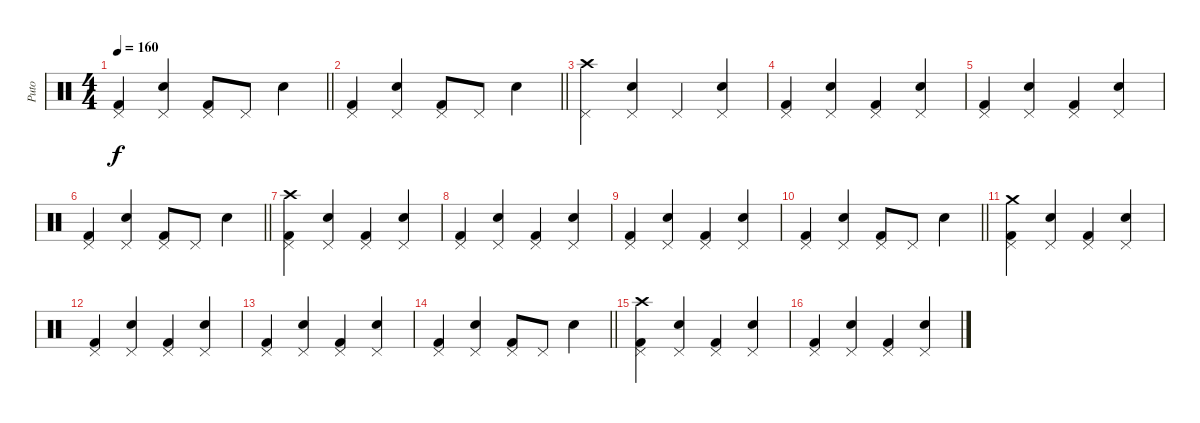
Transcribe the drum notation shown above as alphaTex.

\track ("Puto" "Puto") {instrument percussion}
\staff {score}
\articulation defaults
\ts (4 4)
\tempo 160
\clef neutral
\barLineRight lightlight
\ks c
("Kick (hit) 2" "Pedal Hi-Hat (hit)").4{dy f} ("Snare (hit) 2" "Pedal Hi-Hat (hit)").4 ("Kick (hit) 2" "Pedal Hi-Hat (hit)").8 "Pedal Hi-Hat (hit)".8 "Snare (hit) 2".4 |
\barLineRight lightlight
("Kick (hit) 2" "Pedal Hi-Hat (hit)").4 ("Snare (hit) 2" "Pedal Hi-Hat (hit)").4 ("Kick (hit) 2" "Pedal Hi-Hat (hit)").8 "Pedal Hi-Hat (hit)".8 "Snare (hit) 2".4 |
("Crash high (hit)" "Pedal Hi-Hat (hit)").4 ("Snare (hit) 2" "Pedal Hi-Hat (hit)").4 "Pedal Hi-Hat (hit)".4 ("Snare (hit) 2" "Pedal Hi-Hat (hit)").4 |
("Kick (hit) 2" "Pedal Hi-Hat (hit)").4 ("Snare (hit) 2" "Pedal Hi-Hat (hit)").4 ("Kick (hit) 2" "Pedal Hi-Hat (hit)").4 ("Snare (hit) 2" "Pedal Hi-Hat (hit)").4 |
("Kick (hit) 2" "Pedal Hi-Hat (hit)").4 ("Snare (hit) 2" "Pedal Hi-Hat (hit)").4 ("Kick (hit) 2" "Pedal Hi-Hat (hit)").4 ("Snare (hit) 2" "Pedal Hi-Hat (hit)").4 |
\barLineRight lightlight
("Kick (hit) 2" "Pedal Hi-Hat (hit)").4 ("Snare (hit) 2" "Pedal Hi-Hat (hit)").4 ("Kick (hit) 2" "Pedal Hi-Hat (hit)").8 "Pedal Hi-Hat (hit)".8 "Snare (hit) 2".4 |
("Kick (hit) 2" "Crash high (hit)" "Pedal Hi-Hat (hit)").4 ("Snare (hit) 2" "Pedal Hi-Hat (hit)").4 ("Kick (hit) 2" "Pedal Hi-Hat (hit)").4 ("Snare (hit) 2" "Pedal Hi-Hat (hit)").4 |
("Kick (hit) 2" "Pedal Hi-Hat (hit)").4 ("Snare (hit) 2" "Pedal Hi-Hat (hit)").4 ("Kick (hit) 2" "Pedal Hi-Hat (hit)").4 ("Snare (hit) 2" "Pedal Hi-Hat (hit)").4 |
("Kick (hit) 2" "Pedal Hi-Hat (hit)").4 ("Snare (hit) 2" "Pedal Hi-Hat (hit)").4 ("Kick (hit) 2" "Pedal Hi-Hat (hit)").4 ("Snare (hit) 2" "Pedal Hi-Hat (hit)").4 |
\barLineRight lightlight
("Kick (hit) 2" "Pedal Hi-Hat (hit)").4 ("Snare (hit) 2" "Pedal Hi-Hat (hit)").4 ("Kick (hit) 2" "Pedal Hi-Hat (hit)").8 "Pedal Hi-Hat (hit)".8 "Snare (hit) 2".4 |
("Kick (hit) 2" "Crash medium (hit)" "Pedal Hi-Hat (hit)").4 ("Snare (hit) 2" "Pedal Hi-Hat (hit)").4 ("Kick (hit) 2" "Pedal Hi-Hat (hit)").4 ("Snare (hit) 2" "Pedal Hi-Hat (hit)").4 |
("Kick (hit) 2" "Pedal Hi-Hat (hit)").4 ("Snare (hit) 2" "Pedal Hi-Hat (hit)").4 ("Kick (hit) 2" "Pedal Hi-Hat (hit)").4 ("Snare (hit) 2" "Pedal Hi-Hat (hit)").4 |
("Kick (hit) 2" "Pedal Hi-Hat (hit)").4 ("Snare (hit) 2" "Pedal Hi-Hat (hit)").4 ("Kick (hit) 2" "Pedal Hi-Hat (hit)").4 ("Snare (hit) 2" "Pedal Hi-Hat (hit)").4 |
\barLineRight lightlight
("Kick (hit) 2" "Pedal Hi-Hat (hit)").4 ("Snare (hit) 2" "Pedal Hi-Hat (hit)").4 ("Kick (hit) 2" "Pedal Hi-Hat (hit)").8 "Pedal Hi-Hat (hit)".8 "Snare (hit) 2".4 |
("Kick (hit) 2" "Crash high (hit)" "Pedal Hi-Hat (hit)").4 ("Snare (hit) 2" "Pedal Hi-Hat (hit)").4 ("Kick (hit) 2" "Pedal Hi-Hat (hit)").4 ("Snare (hit) 2" "Pedal Hi-Hat (hit)").4 |
("Kick (hit) 2" "Pedal Hi-Hat (hit)").4 ("Snare (hit) 2" "Pedal Hi-Hat (hit)").4 ("Kick (hit) 2" "Pedal Hi-Hat (hit)").4 ("Snare (hit) 2" "Pedal Hi-Hat (hit)").4
